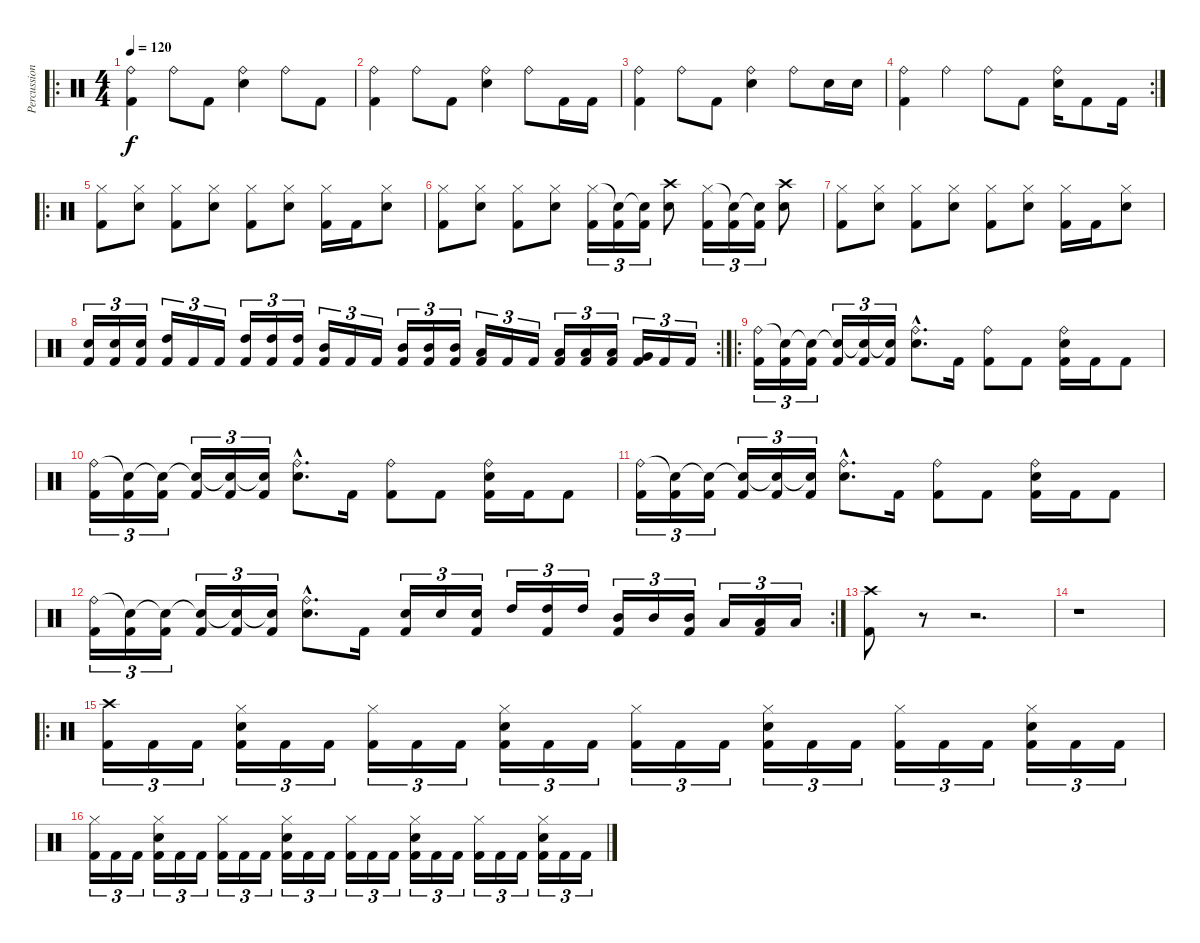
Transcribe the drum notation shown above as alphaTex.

\track ("Percussion" "Percussion") {instrument percussion}
\staff {score}
\articulation defaults
\ro
\ts (4 4)
\tempo 120
\clef neutral
\ks c
("Ride (bell)" "Kick (hit) 2").4{dy f} "Ride (bell)".8 "Kick (hit) 2".8 ("Ride (bell)" "Snare (hit) 2").4 "Ride (bell)".8 "Kick (hit) 2".8 |
("Ride (bell)" "Kick (hit) 2").4 "Ride (bell)".8 "Kick (hit) 2".8 ("Ride (bell)" "Snare (hit) 2").4 "Ride (bell)".8 "Kick (hit) 2".16 "Kick (hit) 2".16 |
("Ride (bell)" "Kick (hit) 2").4 "Ride (bell)".8 "Kick (hit) 2".8 ("Ride (bell)" "Snare (hit) 2").4 "Ride (bell)".8 "Snare (hit) 2".16 "Snare (hit) 2".16 |
\rc 2
("Ride (bell)" "Kick (hit) 2").4 "Ride (bell)".4 "Ride (bell)".8 "Kick (hit) 2".8 ("Ride (bell)" "Snare (hit) 2").16 "Kick (hit) 2".8 "Kick (hit) 2".16 |
\ro
("Hi-Hat (closed)" "Kick (hit) 2").8 ("Hi-Hat (closed)" "Snare (hit) 2").8 ("Hi-Hat (closed)" "Kick (hit) 2").8 ("Hi-Hat (closed)" "Snare (hit) 2").8 ("Hi-Hat (closed)" "Kick (hit) 2").8 ("Hi-Hat (closed)" "Snare (hit) 2").8 ("Hi-Hat (closed)" "Kick (hit) 2").16 "Kick (hit) 2".16 ("Hi-Hat (closed)" "Snare (hit) 2").8 |
("Hi-Hat (closed)" "Kick (hit) 2").8 ("Hi-Hat (closed)" "Snare (hit) 2").8 ("Hi-Hat (closed)" "Kick (hit) 2").8 ("Hi-Hat (closed)" "Snare (hit) 2").8 ("Hi-Hat (closed)" "Kick (hit) 2").16{tu (3 2)} ("Snare (hit)"{t} "Kick (hit) 2").16{tu (3 2)} ("Snare (hit)"{t} "Kick (hit) 2").16{tu (3 2)} ("Crash high (hit)" "Snare (hit) 2").8 ("Hi-Hat (closed)" "Kick (hit) 2").16{tu (3 2)} ("Snare (hit)"{t} "Kick (hit) 2").16{tu (3 2)} ("Snare (hit)"{t} "Kick (hit) 2").16{tu (3 2)} ("Crash high (hit)" "Snare (hit) 2").8 |
("Hi-Hat (closed)" "Kick (hit) 2").8 ("Hi-Hat (closed)" "Snare (hit) 2").8 ("Hi-Hat (closed)" "Kick (hit) 2").8 ("Hi-Hat (closed)" "Snare (hit) 2").8 ("Hi-Hat (closed)" "Kick (hit) 2").8 ("Hi-Hat (closed)" "Snare (hit) 2").8 ("Hi-Hat (closed)" "Kick (hit) 2").16 "Kick (hit) 2".16 ("Hi-Hat (closed)" "Snare (hit) 2").8 |
\rc 2
("Snare (hit) 2" "Kick (hit) 2").16{tu (3 2)} ("Snare (hit) 2" "Kick (hit) 2").16{tu (3 2)} ("Snare (hit) 2" "Kick (hit) 2").16{tu (3 2)} ("High Tom (hit)" "Kick (hit) 2").16{tu (3 2)} "Kick (hit) 2".16{tu (3 2)} "Kick (hit) 2".16{tu (3 2)} ("High Tom (hit)" "Kick (hit) 2").16{tu (3 2)} ("High Tom (hit)" "Kick (hit) 2").16{tu (3 2)} ("High Tom (hit)" "Kick (hit) 2").16{tu (3 2)} ("Mid Tom (hit)" "Kick (hit) 2").16{tu (3 2)} "Kick (hit) 2".16{tu (3 2)} "Kick (hit) 2".16{tu (3 2)} ("Mid Tom (hit)" "Kick (hit) 2").16{tu (3 2)} ("Mid Tom (hit)" "Kick (hit) 2").16{tu (3 2)} ("Mid Tom (hit)" "Kick (hit) 2").16{tu (3 2)} ("Low Tom (hit)" "Kick (hit) 2").16{tu (3 2)} "Kick (hit) 2".16{tu (3 2)} "Kick (hit) 2".16{tu (3 2)} ("Low Tom (hit)" "Kick (hit) 2").16{tu (3 2)} ("Low Tom (hit)" "Kick (hit) 2").16{tu (3 2)} ("Low Tom (hit)" "Kick (hit) 2").16{tu (3 2)} ("Very Low Tom (hit)" "Kick (hit) 2").16{tu (3 2)} "Kick (hit) 2".16{tu (3 2)} "Kick (hit) 2".16{tu (3 2)} |
\ro
("Ride (bell)" "Kick (hit) 2").16{tu (3 2)} ("Snare (hit)"{t} "Kick (hit) 2").16{tu (3 2)} ("Snare (hit)"{t} "Kick (hit) 2").16{tu (3 2)} ("Snare (hit)"{t} "Kick (hit) 2").16{tu (3 2)} ("Snare (hit)"{t} "Kick (hit) 2").16{tu (3 2)} ("Snare (hit)"{t} "Kick (hit) 2").16{tu (3 2)} ("Ride (bell)"{hac} "Snare (hit) 2"{hac}).8{d} "Kick (hit) 2".16 ("Ride (bell)" "Kick (hit) 2").8 "Kick (hit) 2".8 ("Ride (bell)" "Snare (hit) 2" "Kick (hit) 2").16 "Kick (hit) 2".16 "Kick (hit) 2".8 |
("Ride (bell)" "Kick (hit) 2").16{tu (3 2)} ("Snare (hit)"{t} "Kick (hit) 2").16{tu (3 2)} ("Snare (hit)"{t} "Kick (hit) 2").16{tu (3 2)} ("Snare (hit)"{t} "Kick (hit) 2").16{tu (3 2)} ("Snare (hit)"{t} "Kick (hit) 2").16{tu (3 2)} ("Snare (hit)"{t} "Kick (hit) 2").16{tu (3 2)} ("Ride (bell)"{hac} "Snare (hit) 2"{hac}).8{d} "Kick (hit) 2".16 ("Ride (bell)" "Kick (hit) 2").8 "Kick (hit) 2".8 ("Ride (bell)" "Snare (hit) 2" "Kick (hit) 2").16 "Kick (hit) 2".16 "Kick (hit) 2".8 |
("Ride (bell)" "Kick (hit) 2").16{tu (3 2)} ("Snare (hit)"{t} "Kick (hit) 2").16{tu (3 2)} ("Snare (hit)"{t} "Kick (hit) 2").16{tu (3 2)} ("Snare (hit)"{t} "Kick (hit) 2").16{tu (3 2)} ("Snare (hit)"{t} "Kick (hit) 2").16{tu (3 2)} ("Snare (hit)"{t} "Kick (hit) 2").16{tu (3 2)} ("Ride (bell)"{hac} "Snare (hit) 2"{hac}).8{d} "Kick (hit) 2".16 ("Ride (bell)" "Kick (hit) 2").8 "Kick (hit) 2".8 ("Ride (bell)" "Snare (hit) 2" "Kick (hit) 2").16 "Kick (hit) 2".16 "Kick (hit) 2".8 |
\rc 2
("Ride (bell)" "Kick (hit) 2").16{tu (3 2)} ("Snare (hit)"{t} "Kick (hit) 2").16{tu (3 2)} ("Snare (hit)"{t} "Kick (hit) 2").16{tu (3 2)} ("Snare (hit)"{t} "Kick (hit) 2").16{tu (3 2)} ("Snare (hit)"{t} "Kick (hit) 2").16{tu (3 2)} ("Snare (hit)"{t} "Kick (hit) 2").16{tu (3 2)} ("Ride (bell)"{hac} "Snare (hit) 2"{hac}).8{d} "Kick (hit) 2".16 ("Snare (hit) 2" "Kick (hit) 2").16{tu (3 2)} "Snare (hit) 2".16{tu (3 2)} ("Snare (hit) 2" "Kick (hit) 2").16{tu (3 2)} "High Tom (hit)".16{tu (3 2)} ("High Tom (hit)" "Kick (hit) 2").16{tu (3 2)} "High Tom (hit)".16{tu (3 2)} ("Mid Tom (hit)" "Kick (hit) 2").16{tu (3 2)} "Mid Tom (hit)".16{tu (3 2)} ("Mid Tom (hit)" "Kick (hit) 2").16{tu (3 2)} "Low Tom (hit)".16{tu (3 2)} ("Low Tom (hit)" "Kick (hit) 2").16{tu (3 2)} "Low Tom (hit)".16{tu (3 2)} |
("Crash high (hit)" "Kick (hit) 2").8 r.8 r.2{d} |
r.1 |
\ro
("Crash high (hit)" "Kick (hit) 2").16{tu (3 2)} "Kick (hit) 2".16{tu (3 2)} "Kick (hit) 2".16{tu (3 2)} ("Hi-Hat (closed)" "Snare (hit) 2" "Kick (hit) 2").16{tu (3 2)} "Kick (hit) 2".16{tu (3 2)} "Kick (hit) 2".16{tu (3 2)} ("Hi-Hat (closed)" "Kick (hit) 2").16{tu (3 2)} "Kick (hit) 2".16{tu (3 2)} "Kick (hit) 2".16{tu (3 2)} ("Hi-Hat (closed)" "Snare (hit) 2" "Kick (hit) 2").16{tu (3 2)} "Kick (hit) 2".16{tu (3 2)} "Kick (hit) 2".16{tu (3 2)} ("Hi-Hat (closed)" "Kick (hit) 2").16{tu (3 2)} "Kick (hit) 2".16{tu (3 2)} "Kick (hit) 2".16{tu (3 2)} ("Hi-Hat (closed)" "Snare (hit) 2" "Kick (hit) 2").16{tu (3 2)} "Kick (hit) 2".16{tu (3 2)} "Kick (hit) 2".16{tu (3 2)} ("Hi-Hat (closed)" "Kick (hit) 2").16{tu (3 2)} "Kick (hit) 2".16{tu (3 2)} "Kick (hit) 2".16{tu (3 2)} ("Hi-Hat (closed)" "Snare (hit) 2" "Kick (hit) 2").16{tu (3 2)} "Kick (hit) 2".16{tu (3 2)} "Kick (hit) 2".16{tu (3 2)} |
("Hi-Hat (closed)" "Kick (hit) 2").16{tu (3 2)} "Kick (hit) 2".16{tu (3 2)} "Kick (hit) 2".16{tu (3 2)} ("Hi-Hat (closed)" "Snare (hit) 2" "Kick (hit) 2").16{tu (3 2)} "Kick (hit) 2".16{tu (3 2)} "Kick (hit) 2".16{tu (3 2)} ("Hi-Hat (closed)" "Kick (hit) 2").16{tu (3 2)} "Kick (hit) 2".16{tu (3 2)} "Kick (hit) 2".16{tu (3 2)} ("Hi-Hat (closed)" "Snare (hit) 2" "Kick (hit) 2").16{tu (3 2)} "Kick (hit) 2".16{tu (3 2)} "Kick (hit) 2".16{tu (3 2)} ("Hi-Hat (closed)" "Kick (hit) 2").16{tu (3 2)} "Kick (hit) 2".16{tu (3 2)} "Kick (hit) 2".16{tu (3 2)} ("Hi-Hat (closed)" "Snare (hit) 2" "Kick (hit) 2").16{tu (3 2)} "Kick (hit) 2".16{tu (3 2)} "Kick (hit) 2".16{tu (3 2)} ("Hi-Hat (closed)" "Kick (hit) 2").16{tu (3 2)} "Kick (hit) 2".16{tu (3 2)} "Kick (hit) 2".16{tu (3 2)} ("Hi-Hat (closed)" "Snare (hit) 2" "Kick (hit) 2").16{tu (3 2)} "Kick (hit) 2".16{tu (3 2)} "Kick (hit) 2".16{tu (3 2)}
